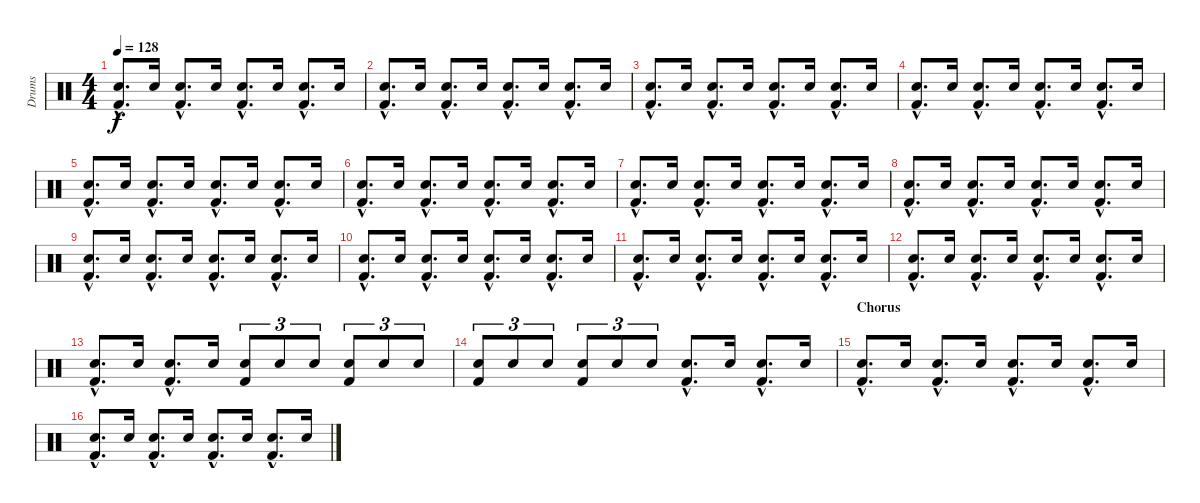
\track ("Drums" "Drums") {instrument percussion}
\staff {score}
\articulation defaults
\ts (4 4)
\tempo 128
\clef neutral
\ks c
("Snare (hit) 2"{hac} "Kick (hit) 2"{hac}).8{d dy f} "Snare (hit) 2".16 ("Snare (hit) 2"{hac} "Kick (hit) 2"{hac}).8{d} "Snare (hit) 2".16 ("Snare (hit) 2"{hac} "Kick (hit) 2"{hac}).8{d} "Snare (hit) 2".16 ("Snare (hit) 2"{hac} "Kick (hit) 2"{hac}).8{d} "Snare (hit) 2".16 |
("Snare (hit) 2"{hac} "Kick (hit) 2"{hac}).8{d} "Snare (hit) 2".16 ("Snare (hit) 2"{hac} "Kick (hit) 2"{hac}).8{d} "Snare (hit) 2".16 ("Snare (hit) 2"{hac} "Kick (hit) 2"{hac}).8{d} "Snare (hit) 2".16 ("Snare (hit) 2"{hac} "Kick (hit) 2"{hac}).8{d} "Snare (hit) 2".16 |
("Snare (hit) 2"{hac} "Kick (hit) 2"{hac}).8{d} "Snare (hit) 2".16 ("Snare (hit) 2"{hac} "Kick (hit) 2"{hac}).8{d} "Snare (hit) 2".16 ("Snare (hit) 2"{hac} "Kick (hit) 2"{hac}).8{d} "Snare (hit) 2".16 ("Snare (hit) 2"{hac} "Kick (hit) 2"{hac}).8{d} "Snare (hit) 2".16 |
("Snare (hit) 2"{hac} "Kick (hit) 2"{hac}).8{d} "Snare (hit) 2".16 ("Snare (hit) 2"{hac} "Kick (hit) 2"{hac}).8{d} "Snare (hit) 2".16 ("Snare (hit) 2"{hac} "Kick (hit) 2"{hac}).8{d} "Snare (hit) 2".16 ("Snare (hit) 2"{hac} "Kick (hit) 2"{hac}).8{d} "Snare (hit) 2".16 |
("Snare (hit) 2"{hac} "Kick (hit) 2"{hac}).8{d} "Snare (hit) 2".16 ("Snare (hit) 2"{hac} "Kick (hit) 2"{hac}).8{d} "Snare (hit) 2".16 ("Snare (hit) 2"{hac} "Kick (hit) 2"{hac}).8{d} "Snare (hit) 2".16 ("Snare (hit) 2"{hac} "Kick (hit) 2"{hac}).8{d} "Snare (hit) 2".16 |
("Snare (hit) 2"{hac} "Kick (hit) 2"{hac}).8{d} "Snare (hit) 2".16 ("Snare (hit) 2"{hac} "Kick (hit) 2"{hac}).8{d} "Snare (hit) 2".16 ("Snare (hit) 2"{hac} "Kick (hit) 2"{hac}).8{d} "Snare (hit) 2".16 ("Snare (hit) 2"{hac} "Kick (hit) 2"{hac}).8{d} "Snare (hit) 2".16 |
("Snare (hit) 2"{hac} "Kick (hit) 2"{hac}).8{d} "Snare (hit) 2".16 ("Snare (hit) 2"{hac} "Kick (hit) 2"{hac}).8{d} "Snare (hit) 2".16 ("Snare (hit) 2"{hac} "Kick (hit) 2"{hac}).8{d} "Snare (hit) 2".16 ("Snare (hit) 2"{hac} "Kick (hit) 2"{hac}).8{d} "Snare (hit) 2".16 |
("Snare (hit) 2"{hac} "Kick (hit) 2"{hac}).8{d} "Snare (hit) 2".16 ("Snare (hit) 2"{hac} "Kick (hit) 2"{hac}).8{d} "Snare (hit) 2".16 ("Snare (hit) 2"{hac} "Kick (hit) 2"{hac}).8{d} "Snare (hit) 2".16 ("Snare (hit) 2"{hac} "Kick (hit) 2"{hac}).8{d} "Snare (hit) 2".16 |
("Snare (hit) 2"{hac} "Kick (hit) 2"{hac}).8{d} "Snare (hit) 2".16 ("Snare (hit) 2"{hac} "Kick (hit) 2"{hac}).8{d} "Snare (hit) 2".16 ("Snare (hit) 2"{hac} "Kick (hit) 2"{hac}).8{d} "Snare (hit) 2".16 ("Snare (hit) 2"{hac} "Kick (hit) 2"{hac}).8{d} "Snare (hit) 2".16 |
("Snare (hit) 2"{hac} "Kick (hit) 2"{hac}).8{d} "Snare (hit) 2".16 ("Snare (hit) 2"{hac} "Kick (hit) 2"{hac}).8{d} "Snare (hit) 2".16 ("Snare (hit) 2"{hac} "Kick (hit) 2"{hac}).8{d} "Snare (hit) 2".16 ("Snare (hit) 2"{hac} "Kick (hit) 2"{hac}).8{d} "Snare (hit) 2".16 |
("Snare (hit) 2"{hac} "Kick (hit) 2"{hac}).8{d} "Snare (hit) 2".16 ("Snare (hit) 2"{hac} "Kick (hit) 2"{hac}).8{d} "Snare (hit) 2".16 ("Snare (hit) 2"{hac} "Kick (hit) 2"{hac}).8{d} "Snare (hit) 2".16 ("Snare (hit) 2"{hac} "Kick (hit) 2"{hac}).8{d} "Snare (hit) 2".16 |
("Snare (hit) 2"{hac} "Kick (hit) 2"{hac}).8{d} "Snare (hit) 2".16 ("Snare (hit) 2"{hac} "Kick (hit) 2"{hac}).8{d} "Snare (hit) 2".16 ("Snare (hit) 2"{hac} "Kick (hit) 2"{hac}).8{d} "Snare (hit) 2".16 ("Snare (hit) 2"{hac} "Kick (hit) 2"{hac}).8{d} "Snare (hit) 2".16 |
("Snare (hit) 2"{hac} "Kick (hit) 2"{hac}).8{d} "Snare (hit) 2".16 ("Snare (hit) 2"{hac} "Kick (hit) 2"{hac}).8{d} "Snare (hit) 2".16 ("Snare (hit) 2" "Kick (hit) 2").8{tu (3 2)} "Snare (hit) 2".8{tu (3 2)} "Snare (hit) 2".8{tu (3 2)} ("Snare (hit) 2" "Kick (hit) 2").8{tu (3 2)} "Snare (hit) 2".8{tu (3 2)} "Snare (hit) 2".8{tu (3 2)} |
("Snare (hit) 2" "Kick (hit) 2").8{tu (3 2)} "Snare (hit) 2".8{tu (3 2)} "Snare (hit) 2".8{tu (3 2)} ("Snare (hit) 2" "Kick (hit) 2").8{tu (3 2)} "Snare (hit) 2".8{tu (3 2)} "Snare (hit) 2".8{tu (3 2)} ("Snare (hit) 2"{hac} "Kick (hit) 2"{hac}).8{d} "Snare (hit) 2".16 ("Snare (hit) 2"{hac} "Kick (hit) 2"{hac}).8{d} "Snare (hit) 2".16 |
\section ("" "Chorus")
("Snare (hit) 2"{hac} "Kick (hit) 2"{hac}).8{d} "Snare (hit) 2".16 ("Snare (hit) 2"{hac} "Kick (hit) 2"{hac}).8{d} "Snare (hit) 2".16 ("Snare (hit) 2"{hac} "Kick (hit) 2"{hac}).8{d} "Snare (hit) 2".16 ("Snare (hit) 2"{hac} "Kick (hit) 2"{hac}).8{d} "Snare (hit) 2".16 |
("Snare (hit) 2"{hac} "Kick (hit) 2"{hac}).8{d} "Snare (hit) 2".16 ("Snare (hit) 2"{hac} "Kick (hit) 2"{hac}).8{d} "Snare (hit) 2".16 ("Snare (hit) 2"{hac} "Kick (hit) 2"{hac}).8{d} "Snare (hit) 2".16 ("Snare (hit) 2"{hac} "Kick (hit) 2"{hac}).8{d} "Snare (hit) 2".16
